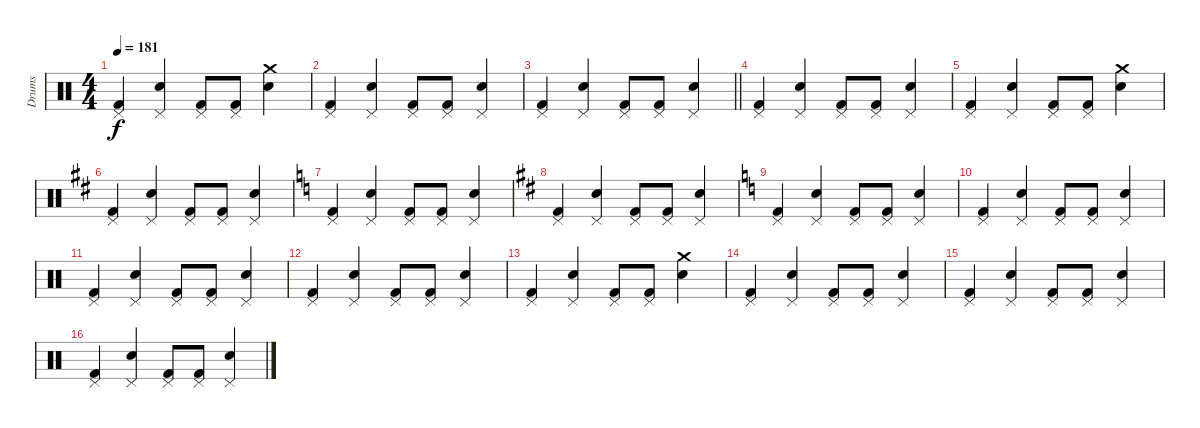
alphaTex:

\track ("Drums" "Drums") {instrument percussion}
\staff {score}
\articulation defaults
\ts (4 4)
\tempo 181
\clef neutral
\ks c
("Pedal Hi-Hat (hit)" "Kick (hit) 2").4{dy f} ("Pedal Hi-Hat (hit)" "Snare (hit) 2").4 ("Pedal Hi-Hat (hit)" "Kick (hit) 2").8 ("Pedal Hi-Hat (hit)" "Kick (hit) 2").8 ("Crash medium (hit)" "Snare (hit) 2").4 |
("Pedal Hi-Hat (hit)" "Kick (hit) 2").4 ("Pedal Hi-Hat (hit)" "Snare (hit) 2").4 ("Pedal Hi-Hat (hit)" "Kick (hit) 2").8 ("Pedal Hi-Hat (hit)" "Kick (hit) 2").8 ("Pedal Hi-Hat (hit)" "Snare (hit) 2").4 |
\barLineRight lightlight
("Pedal Hi-Hat (hit)" "Kick (hit) 2").4 ("Pedal Hi-Hat (hit)" "Snare (hit) 2").4 ("Pedal Hi-Hat (hit)" "Kick (hit) 2").8 ("Pedal Hi-Hat (hit)" "Kick (hit) 2").8 ("Pedal Hi-Hat (hit)" "Snare (hit) 2").4 |
("Pedal Hi-Hat (hit)" "Kick (hit) 2").4 ("Pedal Hi-Hat (hit)" "Snare (hit) 2").4 ("Pedal Hi-Hat (hit)" "Kick (hit) 2").8 ("Pedal Hi-Hat (hit)" "Kick (hit) 2").8 ("Pedal Hi-Hat (hit)" "Snare (hit) 2").4 |
("Pedal Hi-Hat (hit)" "Kick (hit) 2").4 ("Pedal Hi-Hat (hit)" "Snare (hit) 2").4 ("Pedal Hi-Hat (hit)" "Kick (hit) 2").8 ("Pedal Hi-Hat (hit)" "Kick (hit) 2").8 ("Crash medium (hit)" "Snare (hit) 2").4 |
\ks d
("Pedal Hi-Hat (hit)" "Kick (hit) 2").4 ("Pedal Hi-Hat (hit)" "Snare (hit) 2").4 ("Pedal Hi-Hat (hit)" "Kick (hit) 2").8 ("Pedal Hi-Hat (hit)" "Kick (hit) 2").8 ("Pedal Hi-Hat (hit)" "Snare (hit) 2").4 |
\ks c
("Pedal Hi-Hat (hit)" "Kick (hit) 2").4 ("Pedal Hi-Hat (hit)" "Snare (hit) 2").4 ("Pedal Hi-Hat (hit)" "Kick (hit) 2").8 ("Pedal Hi-Hat (hit)" "Kick (hit) 2").8 ("Pedal Hi-Hat (hit)" "Snare (hit) 2").4 |
\ks d
("Pedal Hi-Hat (hit)" "Kick (hit) 2").4 ("Pedal Hi-Hat (hit)" "Snare (hit) 2").4 ("Pedal Hi-Hat (hit)" "Kick (hit) 2").8 ("Pedal Hi-Hat (hit)" "Kick (hit) 2").8 ("Pedal Hi-Hat (hit)" "Snare (hit) 2").4 |
\ks c
("Pedal Hi-Hat (hit)" "Kick (hit) 2").4 ("Pedal Hi-Hat (hit)" "Snare (hit) 2").4 ("Pedal Hi-Hat (hit)" "Kick (hit) 2").8 ("Pedal Hi-Hat (hit)" "Kick (hit) 2").8 ("Pedal Hi-Hat (hit)" "Snare (hit) 2").4 |
("Pedal Hi-Hat (hit)" "Kick (hit) 2").4 ("Pedal Hi-Hat (hit)" "Snare (hit) 2").4 ("Pedal Hi-Hat (hit)" "Kick (hit) 2").8 ("Pedal Hi-Hat (hit)" "Kick (hit) 2").8 ("Pedal Hi-Hat (hit)" "Snare (hit) 2").4 |
("Pedal Hi-Hat (hit)" "Kick (hit) 2").4 ("Pedal Hi-Hat (hit)" "Snare (hit) 2").4 ("Pedal Hi-Hat (hit)" "Kick (hit) 2").8 ("Pedal Hi-Hat (hit)" "Kick (hit) 2").8 ("Pedal Hi-Hat (hit)" "Snare (hit) 2").4 |
("Pedal Hi-Hat (hit)" "Kick (hit) 2").4 ("Pedal Hi-Hat (hit)" "Snare (hit) 2").4 ("Pedal Hi-Hat (hit)" "Kick (hit) 2").8 ("Pedal Hi-Hat (hit)" "Kick (hit) 2").8 ("Pedal Hi-Hat (hit)" "Snare (hit) 2").4 |
("Pedal Hi-Hat (hit)" "Kick (hit) 2").4 ("Pedal Hi-Hat (hit)" "Snare (hit) 2").4 ("Pedal Hi-Hat (hit)" "Kick (hit) 2").8 ("Pedal Hi-Hat (hit)" "Kick (hit) 2").8 ("Crash medium (hit)" "Snare (hit) 2").4 |
("Pedal Hi-Hat (hit)" "Kick (hit) 2").4 ("Pedal Hi-Hat (hit)" "Snare (hit) 2").4 ("Pedal Hi-Hat (hit)" "Kick (hit) 2").8 ("Pedal Hi-Hat (hit)" "Kick (hit) 2").8 ("Pedal Hi-Hat (hit)" "Snare (hit) 2").4 |
("Pedal Hi-Hat (hit)" "Kick (hit) 2").4 ("Pedal Hi-Hat (hit)" "Snare (hit) 2").4 ("Pedal Hi-Hat (hit)" "Kick (hit) 2").8 ("Pedal Hi-Hat (hit)" "Kick (hit) 2").8 ("Pedal Hi-Hat (hit)" "Snare (hit) 2").4 |
("Pedal Hi-Hat (hit)" "Kick (hit) 2").4 ("Pedal Hi-Hat (hit)" "Snare (hit) 2").4 ("Pedal Hi-Hat (hit)" "Kick (hit) 2").8 ("Pedal Hi-Hat (hit)" "Kick (hit) 2").8 ("Pedal Hi-Hat (hit)" "Snare (hit) 2").4
